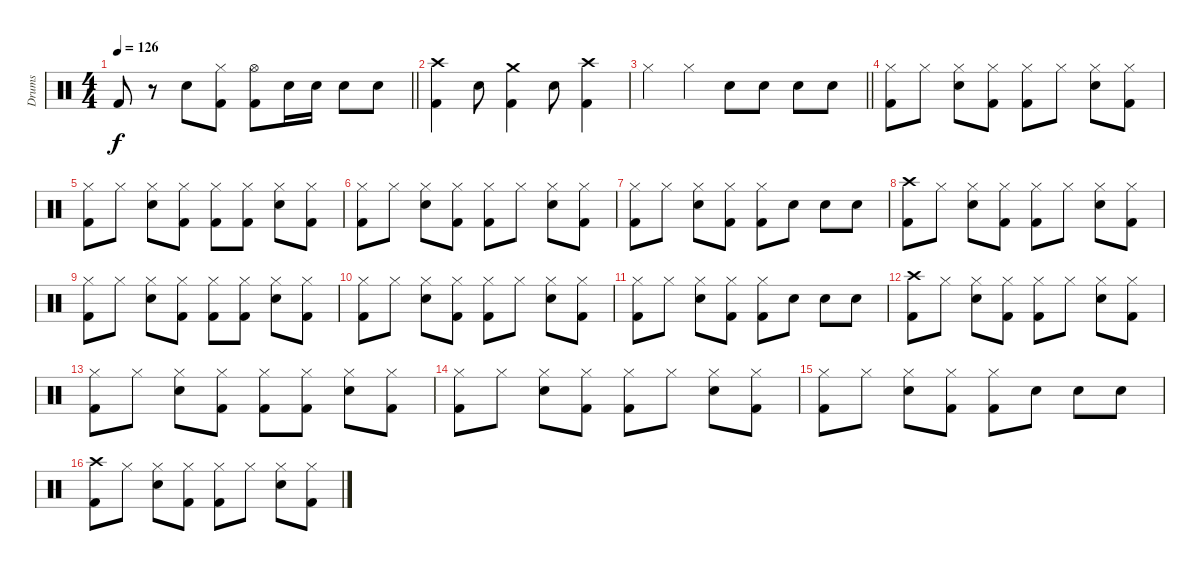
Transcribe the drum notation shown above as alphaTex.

\track ("Drums" "Drums") {instrument percussion}
\staff {score}
\articulation defaults
\ts (4 4)
\tempo 126
\clef neutral
\barLineRight lightlight
\ks c "Kick (hit) 2".8{dy f}
r.8 "Snare (hit) 2".8 ("Hi-Hat (closed)" "Kick (hit) 2").8 ("Hi-Hat (open)" "Kick (hit) 2").8 "Snare (hit) 2".16 "Snare (hit) 2".16 "Snare (hit) 2".8 "Snare (hit) 2".8 |
("Crash high (hit)" "Kick (hit) 2").4 "Snare (hit) 2".8 ("Crash medium (hit)" "Kick (hit) 2").4 "Snare (hit) 2".8 ("Crash high (hit)" "Kick (hit) 2").4 |
\barLineRight lightlight "Hi-Hat (closed)".4 "Hi-Hat (closed)".4 "Snare (hit) 2".8 "Snare (hit) 2".8 "Snare (hit) 2".8 "Snare (hit) 2".8
|
("Hi-Hat (closed)" "Kick (hit) 2").8 "Hi-Hat (closed)".8 ("Hi-Hat (closed)" "Snare (hit) 2").8 ("Hi-Hat (closed)" "Kick (hit) 2").8 ("Hi-Hat (closed)" "Kick (hit) 2").8 "Hi-Hat (closed)".8 ("Hi-Hat (closed)" "Snare (hit) 2").8 ("Hi-Hat (closed)" "Kick (hit) 2").8 |
("Hi-Hat (closed)" "Kick (hit) 2").8 "Hi-Hat (closed)".8 ("Hi-Hat (closed)" "Snare (hit) 2").8 ("Hi-Hat (closed)" "Kick (hit) 2").8 ("Hi-Hat (closed)" "Kick (hit) 2").8 ("Hi-Hat (closed)" "Kick (hit) 2").8 ("Hi-Hat (closed)" "Snare (hit) 2").8 ("Hi-Hat (closed)" "Kick (hit) 2").8 |
("Hi-Hat (closed)" "Kick (hit) 2").8 "Hi-Hat (closed)".8 ("Hi-Hat (closed)" "Snare (hit) 2").8 ("Hi-Hat (closed)" "Kick (hit) 2").8 ("Hi-Hat (closed)" "Kick (hit) 2").8 "Hi-Hat (closed)".8 ("Hi-Hat (closed)" "Snare (hit) 2").8 ("Hi-Hat (closed)" "Kick (hit) 2").8 |
("Hi-Hat (closed)" "Kick (hit) 2").8 "Hi-Hat (closed)".8 ("Hi-Hat (closed)" "Snare (hit) 2").8 ("Hi-Hat (closed)" "Kick (hit) 2").8 ("Hi-Hat (closed)" "Kick (hit) 2").8 "Snare (hit) 2".8 "Snare (hit) 2".8 "Snare (hit) 2".8 |
("Crash high (hit)" "Kick (hit) 2").8 "Hi-Hat (closed)".8 ("Hi-Hat (closed)" "Snare (hit) 2").8 ("Hi-Hat (closed)" "Kick (hit) 2").8 ("Hi-Hat (closed)" "Kick (hit) 2").8 "Hi-Hat (closed)".8 ("Hi-Hat (closed)" "Snare (hit) 2").8 ("Hi-Hat (closed)" "Kick (hit) 2").8 |
("Hi-Hat (closed)" "Kick (hit) 2").8 "Hi-Hat (closed)".8 ("Hi-Hat (closed)" "Snare (hit) 2").8 ("Hi-Hat (closed)" "Kick (hit) 2").8 ("Hi-Hat (closed)" "Kick (hit) 2").8 ("Hi-Hat (closed)" "Kick (hit) 2").8 ("Hi-Hat (closed)" "Snare (hit) 2").8 ("Hi-Hat (closed)" "Kick (hit) 2").8 |
("Hi-Hat (closed)" "Kick (hit) 2").8 "Hi-Hat (closed)".8 ("Hi-Hat (closed)" "Snare (hit) 2").8 ("Hi-Hat (closed)" "Kick (hit) 2").8 ("Hi-Hat (closed)" "Kick (hit) 2").8 "Hi-Hat (closed)".8 ("Hi-Hat (closed)" "Snare (hit) 2").8 ("Hi-Hat (closed)" "Kick (hit) 2").8 |
("Hi-Hat (closed)" "Kick (hit) 2").8 "Hi-Hat (closed)".8 ("Hi-Hat (closed)" "Snare (hit) 2").8 ("Hi-Hat (closed)" "Kick (hit) 2").8 ("Hi-Hat (closed)" "Kick (hit) 2").8 "Snare (hit) 2".8 "Snare (hit) 2".8 "Snare (hit) 2".8 |
("Crash high (hit)" "Kick (hit) 2").8 "Hi-Hat (closed)".8 ("Hi-Hat (closed)" "Snare (hit) 2").8 ("Hi-Hat (closed)" "Kick (hit) 2").8 ("Hi-Hat (closed)" "Kick (hit) 2").8 "Hi-Hat (closed)".8 ("Hi-Hat (closed)" "Snare (hit) 2").8 ("Hi-Hat (closed)" "Kick (hit) 2").8 |
("Hi-Hat (closed)" "Kick (hit) 2").8 "Hi-Hat (closed)".8 ("Hi-Hat (closed)" "Snare (hit) 2").8 ("Hi-Hat (closed)" "Kick (hit) 2").8 ("Hi-Hat (closed)" "Kick (hit) 2").8 ("Hi-Hat (closed)" "Kick (hit) 2").8 ("Hi-Hat (closed)" "Snare (hit) 2").8 ("Hi-Hat (closed)" "Kick (hit) 2").8 |
("Hi-Hat (closed)" "Kick (hit) 2").8 "Hi-Hat (closed)".8 ("Hi-Hat (closed)" "Snare (hit) 2").8 ("Hi-Hat (closed)" "Kick (hit) 2").8 ("Hi-Hat (closed)" "Kick (hit) 2").8 "Hi-Hat (closed)".8 ("Hi-Hat (closed)" "Snare (hit) 2").8 ("Hi-Hat (closed)" "Kick (hit) 2").8 |
("Hi-Hat (closed)" "Kick (hit) 2").8 "Hi-Hat (closed)".8 ("Hi-Hat (closed)" "Snare (hit) 2").8 ("Hi-Hat (closed)" "Kick (hit) 2").8 ("Hi-Hat (closed)" "Kick (hit) 2").8 "Snare (hit) 2".8 "Snare (hit) 2".8 "Snare (hit) 2".8 |
("Crash high (hit)" "Kick (hit) 2").8 "Hi-Hat (closed)".8 ("Hi-Hat (closed)" "Snare (hit) 2").8 ("Hi-Hat (closed)" "Kick (hit) 2").8 ("Hi-Hat (closed)" "Kick (hit) 2").8 "Hi-Hat (closed)".8 ("Hi-Hat (closed)" "Snare (hit) 2").8 ("Hi-Hat (closed)" "Kick (hit) 2").8
